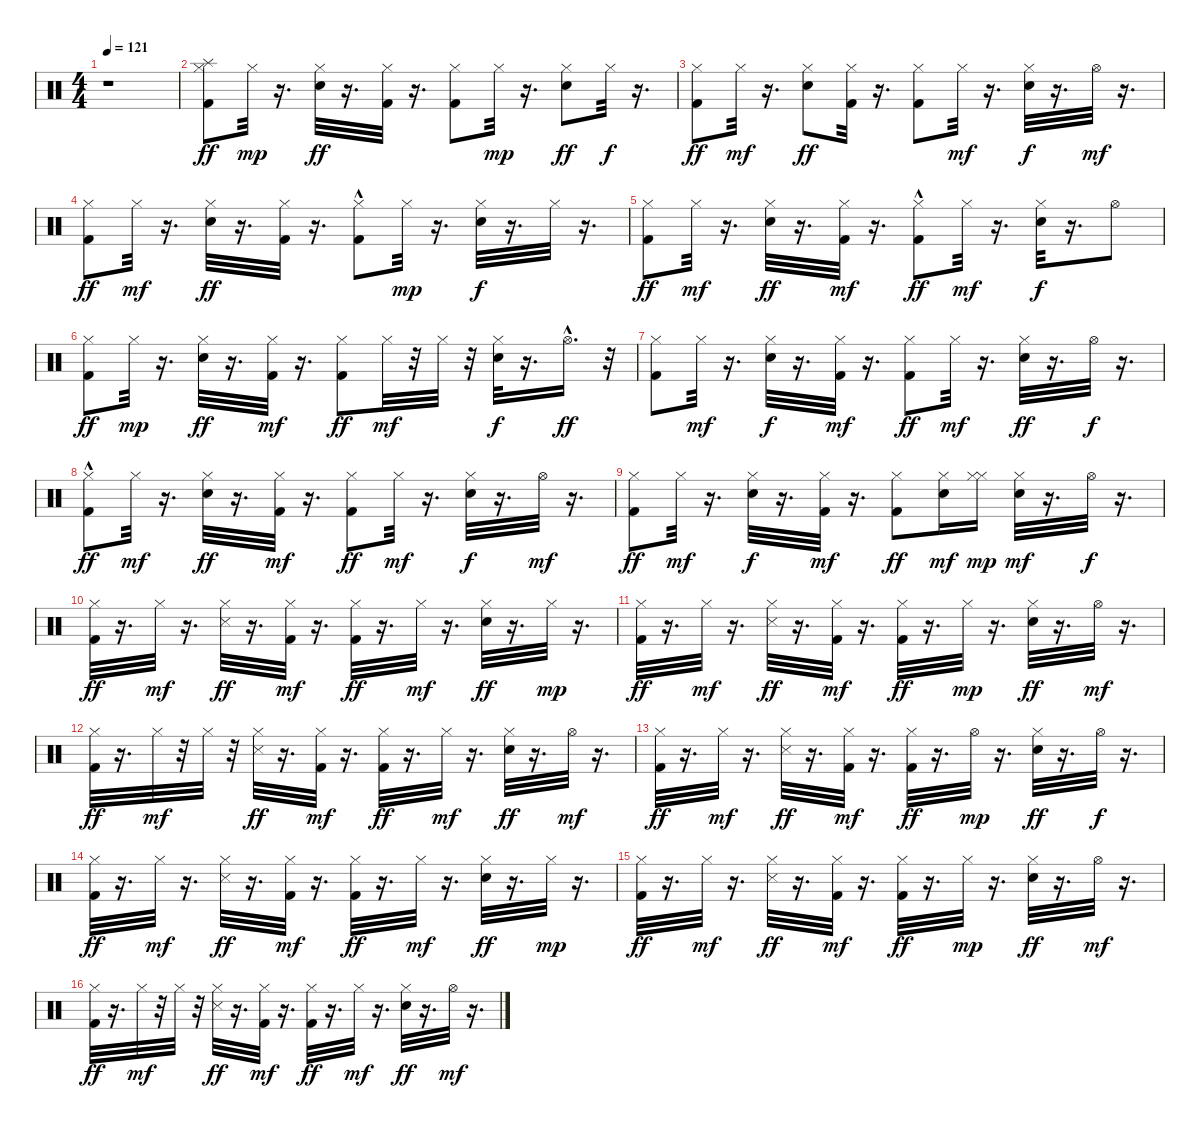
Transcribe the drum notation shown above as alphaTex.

\track "" {instrument percussion}
\staff {score}
\articulation defaults
\ts (4 4)
\tempo 121
\clef neutral
\ks c
r.1{dy ff} |
("Kick (hit) 2" "Hi-Hat (closed)" "Splash (hit)").8 "Hi-Hat (closed)".32{dy mp} r.16{d} ("Electric Snare (hit)" "Hi-Hat (closed)").32{dy ff} r.16{d} ("Hi-Hat (closed)" "Kick (hit) 2").32 r.16{d} ("Kick (hit) 2" "Hi-Hat (closed)").8 "Hi-Hat (closed)".32{dy mp} r.16{d} ("Electric Snare (hit)" "Hi-Hat (closed)").8{dy ff} "Hi-Hat (closed)".32{dy f} r.16{d} |
("Kick (hit) 2" "Hi-Hat (closed)").8{dy ff} "Hi-Hat (closed)".32{dy mf} r.16{d} ("Electric Snare (hit)" "Hi-Hat (closed)").8{dy ff} ("Hi-Hat (closed)" "Kick (hit) 2").32 r.16{d} ("Hi-Hat (closed)" "Kick (hit) 2").8 "Hi-Hat (closed)".32{dy mf} r.16{d} ("Electric Snare (hit)" "Hi-Hat (closed)").32{dy f} r.16{d} "Hi-Hat (open)".32{dy mf} r.16{d} |
("Kick (hit) 2" "Hi-Hat (closed)").8{dy ff} "Hi-Hat (closed)".32{dy mf} r.16{d} ("Electric Snare (hit)" "Hi-Hat (closed)").32{dy ff} r.16{d} ("Hi-Hat (closed)" "Kick (hit) 2").32 r.16{d} ("Hi-Hat (closed)" "Kick (hit) 2"{hac}).8 "Hi-Hat (closed)".32{dy mp} r.16{d} ("Electric Snare (hit)" "Hi-Hat (closed)").32{dy f} r.16{d} "Hi-Hat (closed)".32 r.16{d} |
("Kick (hit) 2" "Hi-Hat (closed)").8{dy ff} "Hi-Hat (closed)".32{dy mf} r.16{d} ("Electric Snare (hit)" "Hi-Hat (closed)").32{dy ff} r.16{d} ("Kick (hit) 2" "Hi-Hat (closed)").32{dy mf} r.16{d} ("Kick (hit) 2"{hac} "Hi-Hat (closed)").8{dy ff} "Hi-Hat (closed)".32{dy mf} r.16{d} ("Electric Snare (hit)" "Hi-Hat (closed)").32{dy f} r.16{d} "Hi-Hat (open)".8 |
("Kick (hit) 2" "Hi-Hat (closed)").8{dy ff} "Hi-Hat (closed)".32{dy mp} r.16{d} ("Electric Snare (hit)" "Hi-Hat (closed)").32{dy ff} r.16{d} ("Kick (hit) 2" "Hi-Hat (closed)").32{dy mf} r.16{d} ("Hi-Hat (closed)" "Kick (hit) 2").8{dy ff} "Hi-Hat (closed)".32{dy mf} r.32 "Hi-Hat (closed)".32 r.32 ("Electric Snare (hit)" "Hi-Hat (closed)").32{dy f} r.16{d} "Hi-Hat (open)"{hac}.16{d dy ff} r.32 |
("Kick (hit) 2" "Hi-Hat (closed)").8 "Hi-Hat (closed)".32{dy mf} r.16{d} ("Electric Snare (hit)" "Hi-Hat (closed)").32{dy f} r.16{d} ("Kick (hit) 2" "Hi-Hat (closed)").32{dy mf} r.16{d} ("Kick (hit) 2" "Hi-Hat (closed)").8{dy ff} "Hi-Hat (closed)".32{dy mf} r.16{d} ("Electric Snare (hit)" "Hi-Hat (closed)").32{dy ff} r.16{d} "Hi-Hat (open)".32{dy f} r.16{d} |
("Kick (hit) 2"{hac} "Hi-Hat (closed)").8{dy ff} "Hi-Hat (closed)".32{dy mf} r.16{d} ("Electric Snare (hit)" "Hi-Hat (closed)").32{dy ff} r.16{d} ("Kick (hit) 2" "Hi-Hat (closed)").32{dy mf} r.16{d} ("Kick (hit) 2" "Hi-Hat (closed)").8{dy ff} "Hi-Hat (closed)".32{dy mf} r.16{d} ("Electric Snare (hit)" "Hi-Hat (closed)").32{dy f} r.16{d} "Hi-Hat (open)".32{dy mf} r.16{d} |
("Kick (hit) 2" "Hi-Hat (closed)").8{dy ff} "Hi-Hat (closed)".32{dy mf} r.16{d} ("Electric Snare (hit)" "Hi-Hat (closed)").32{dy f} r.16{d} ("Kick (hit) 2" "Hi-Hat (closed)").32{dy mf} r.16{d} ("Kick (hit) 2" "Hi-Hat (closed)").8{dy ff} ("Electric Snare (hit)" "Hi-Hat (closed)").16{dy mf} ("Hi-Hat (closed)" "Hi-Hat (closed)").16{dy mp} ("Electric Snare (hit)" "Hi-Hat (closed)").32{dy mf} r.16{d} "Hi-Hat (open)".32{dy f} r.16{d} |
("Kick (hit) 2" "Hi-Hat (closed)").32{dy ff} r.16{d} "Hi-Hat (closed)".32{dy mf} r.16{d} ("Snare (side stick) 3" "Hi-Hat (closed)").32{dy ff} r.16{d} ("Kick (hit) 2" "Hi-Hat (closed)").32{dy mf} r.16{d} ("Kick (hit) 2" "Hi-Hat (closed)").32{dy ff} r.16{d} "Hi-Hat (closed)".32{dy mf} r.16{d} ("Electric Snare (hit)" "Hi-Hat (closed)").32{dy ff} r.16{d} "Hi-Hat (closed)".32{dy mp} r.16{d} |
("Kick (hit) 2" "Hi-Hat (closed)").32{dy ff} r.16{d} "Hi-Hat (closed)".32{dy mf} r.16{d} ("Snare (side stick) 3" "Hi-Hat (closed)").32{dy ff} r.16{d} ("Kick (hit) 2" "Hi-Hat (closed)").32{dy mf} r.16{d} ("Kick (hit) 2" "Hi-Hat (closed)").32{dy ff} r.16{d} "Hi-Hat (closed)".32{dy mp} r.16{d} ("Electric Snare (hit)" "Hi-Hat (closed)").32{dy ff} r.16{d} "Hi-Hat (open)".32{dy mf} r.16{d} |
("Kick (hit) 2" "Hi-Hat (closed)").32{dy ff} r.16{d} "Hi-Hat (closed)".32{dy mf} r.32 "Hi-Hat (closed)".32 r.32 ("Snare (side stick) 3" "Hi-Hat (closed)").32{dy ff} r.16{d} ("Kick (hit) 2" "Hi-Hat (closed)").32{dy mf} r.16{d} ("Kick (hit) 2" "Hi-Hat (closed)").32{dy ff} r.16{d} "Hi-Hat (closed)".32{dy mf} r.16{d} ("Electric Snare (hit)" "Hi-Hat (closed)").32{dy ff} r.16{d} "Hi-Hat (open)".32{dy mf} r.16{d} |
("Hi-Hat (closed)" "Kick (hit) 2").32{dy ff} r.16{d} "Hi-Hat (closed)".32{dy mf} r.16{d} ("Snare (side stick) 3" "Hi-Hat (closed)").32{dy ff} r.16{d} ("Kick (hit) 2" "Hi-Hat (closed)").32{dy mf} r.16{d} ("Kick (hit) 2" "Hi-Hat (closed)").32{dy ff} r.16{d} "Hi-Hat (open)".32{dy mp} r.16{d} ("Electric Snare (hit)" "Hi-Hat (closed)").32{dy ff} r.16{d} "Hi-Hat (open)".32{dy f} r.16{d} |
("Kick (hit) 2" "Hi-Hat (closed)").32{dy ff} r.16{d} "Hi-Hat (closed)".32{dy mf} r.16{d} ("Snare (side stick) 3" "Hi-Hat (closed)").32{dy ff} r.16{d} ("Kick (hit) 2" "Hi-Hat (closed)").32{dy mf} r.16{d} ("Kick (hit) 2" "Hi-Hat (closed)").32{dy ff} r.16{d} "Hi-Hat (closed)".32{dy mf} r.16{d} ("Electric Snare (hit)" "Hi-Hat (closed)").32{dy ff} r.16{d} "Hi-Hat (closed)".32{dy mp} r.16{d} |
("Hi-Hat (closed)" "Kick (hit) 2").32{dy ff} r.16{d} "Hi-Hat (closed)".32{dy mf} r.16{d} ("Snare (side stick) 3" "Hi-Hat (closed)").32{dy ff} r.16{d} ("Kick (hit) 2" "Hi-Hat (closed)").32{dy mf} r.16{d} ("Kick (hit) 2" "Hi-Hat (closed)").32{dy ff} r.16{d} "Hi-Hat (closed)".32{dy mp} r.16{d} ("Electric Snare (hit)" "Hi-Hat (closed)").32{dy ff} r.16{d} "Hi-Hat (open)".32{dy mf} r.16{d} |
("Kick (hit) 2" "Hi-Hat (closed)").32{dy ff} r.16{d} "Hi-Hat (closed)".32{dy mf} r.32 "Hi-Hat (closed)".32 r.32 ("Snare (side stick) 3" "Hi-Hat (closed)").32{dy ff} r.16{d} ("Kick (hit) 2" "Hi-Hat (closed)").32{dy mf} r.16{d} ("Kick (hit) 2" "Hi-Hat (closed)").32{dy ff} r.16{d} "Hi-Hat (closed)".32{dy mf} r.16{d} ("Electric Snare (hit)" "Hi-Hat (closed)").32{dy ff} r.16{d} "Hi-Hat (open)".32{dy mf} r.16{d}
